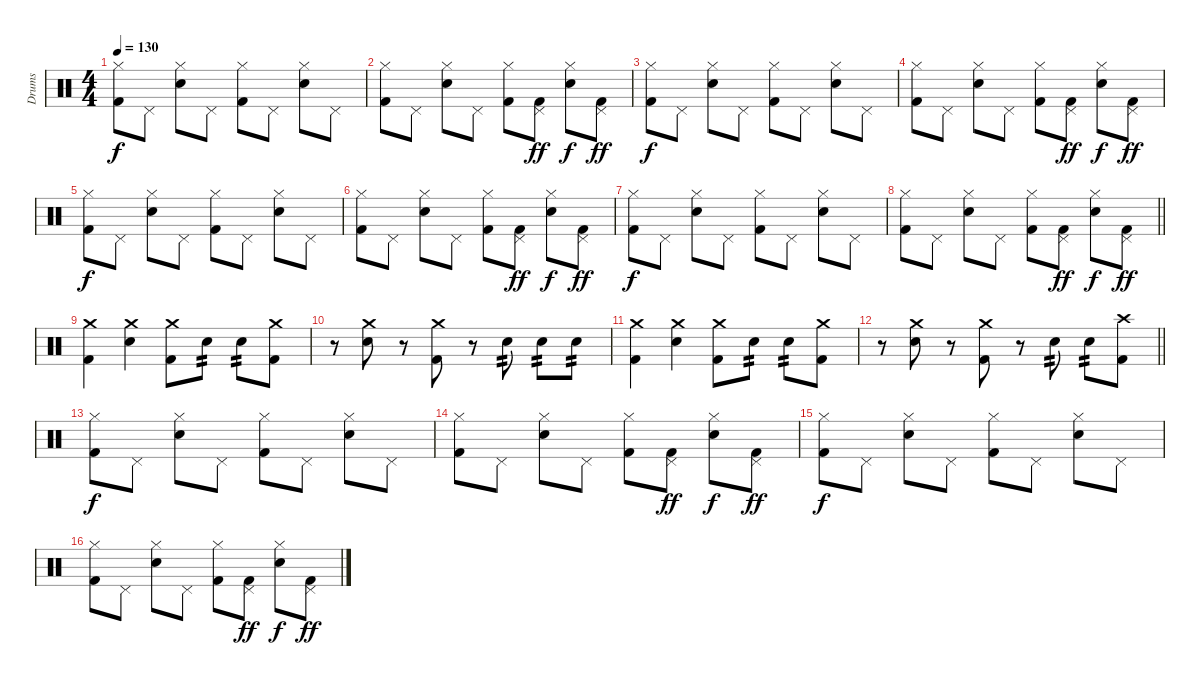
\track ("Drums" "Drums") {instrument percussion}
\staff {score}
\articulation defaults
\ts (4 4)
\tempo 130
\clef neutral
\ks c
("Kick (hit) 2" "Hi-Hat (closed)").8{dy f} "Pedal Hi-Hat (hit)".8 ("Electric Snare (hit)" "Hi-Hat (closed)").8 "Pedal Hi-Hat (hit)".8 ("Kick (hit) 2" "Hi-Hat (closed)").8 "Pedal Hi-Hat (hit)".8 ("Electric Snare (hit)" "Hi-Hat (closed)").8 "Pedal Hi-Hat (hit)".8 |
("Kick (hit) 2" "Hi-Hat (closed)").8 "Pedal Hi-Hat (hit)".8 ("Electric Snare (hit)" "Hi-Hat (closed)").8 "Pedal Hi-Hat (hit)".8 ("Kick (hit) 2" "Hi-Hat (closed)").8 ("Kick (hit) 2" "Pedal Hi-Hat (hit)").8{dy ff} ("Electric Snare (hit)" "Hi-Hat (closed)").8{dy f} ("Kick (hit) 2" "Pedal Hi-Hat (hit)").8{dy ff} |
("Kick (hit) 2" "Hi-Hat (closed)").8{dy f} "Pedal Hi-Hat (hit)".8 ("Electric Snare (hit)" "Hi-Hat (closed)").8 "Pedal Hi-Hat (hit)".8 ("Kick (hit) 2" "Hi-Hat (closed)").8 "Pedal Hi-Hat (hit)".8 ("Electric Snare (hit)" "Hi-Hat (closed)").8 "Pedal Hi-Hat (hit)".8 |
("Kick (hit) 2" "Hi-Hat (closed)").8 "Pedal Hi-Hat (hit)".8 ("Electric Snare (hit)" "Hi-Hat (closed)").8 "Pedal Hi-Hat (hit)".8 ("Kick (hit) 2" "Hi-Hat (closed)").8 ("Kick (hit) 2" "Pedal Hi-Hat (hit)").8{dy ff} ("Electric Snare (hit)" "Hi-Hat (closed)").8{dy f} ("Kick (hit) 2" "Pedal Hi-Hat (hit)").8{dy ff} |
("Kick (hit) 2" "Hi-Hat (closed)").8{dy f} "Pedal Hi-Hat (hit)".8 ("Electric Snare (hit)" "Hi-Hat (closed)").8 "Pedal Hi-Hat (hit)".8 ("Kick (hit) 2" "Hi-Hat (closed)").8 "Pedal Hi-Hat (hit)".8 ("Electric Snare (hit)" "Hi-Hat (closed)").8 "Pedal Hi-Hat (hit)".8 |
("Kick (hit) 2" "Hi-Hat (closed)").8 "Pedal Hi-Hat (hit)".8 ("Electric Snare (hit)" "Hi-Hat (closed)").8 "Pedal Hi-Hat (hit)".8 ("Kick (hit) 2" "Hi-Hat (closed)").8 ("Kick (hit) 2" "Pedal Hi-Hat (hit)").8{dy ff} ("Electric Snare (hit)" "Hi-Hat (closed)").8{dy f} ("Kick (hit) 2" "Pedal Hi-Hat (hit)").8{dy ff} |
("Kick (hit) 2" "Hi-Hat (closed)").8{dy f} "Pedal Hi-Hat (hit)".8 ("Electric Snare (hit)" "Hi-Hat (closed)").8 "Pedal Hi-Hat (hit)".8 ("Kick (hit) 2" "Hi-Hat (closed)").8 "Pedal Hi-Hat (hit)".8 ("Electric Snare (hit)" "Hi-Hat (closed)").8 "Pedal Hi-Hat (hit)".8 |
\barLineRight lightlight
("Kick (hit) 2" "Hi-Hat (closed)").8 "Pedal Hi-Hat (hit)".8 ("Electric Snare (hit)" "Hi-Hat (closed)").8 "Pedal Hi-Hat (hit)".8 ("Kick (hit) 2" "Hi-Hat (closed)").8 ("Kick (hit) 2" "Pedal Hi-Hat (hit)").8{dy ff} ("Electric Snare (hit)" "Hi-Hat (closed)").8{dy f} ("Kick (hit) 2" "Pedal Hi-Hat (hit)").8{dy ff} |
("Kick (hit) 2" "Crash medium (hit)").4 ("Electric Snare (hit)" "Crash medium (hit)").4 ("Kick (hit) 2" "Crash medium (hit)").8 "Electric Snare (hit)".8{tp 2} "Electric Snare (hit)".8{tp 2} ("Kick (hit) 2" "Crash medium (hit)").8 |
r.8 ("Electric Snare (hit)" "Crash medium (hit)").8 r.8 ("Kick (hit) 2" "Crash medium (hit)").8 r.8 "Electric Snare (hit)".8{tp 2} "Electric Snare (hit)".8{tp 2} "Electric Snare (hit)".8{tp 2} |
("Kick (hit) 2" "Crash medium (hit)").4 ("Electric Snare (hit)" "Crash medium (hit)").4 ("Kick (hit) 2" "Crash medium (hit)").8 "Electric Snare (hit)".8{tp 2} "Electric Snare (hit)".8{tp 2} ("Kick (hit) 2" "Crash medium (hit)").8 |
\barLineRight lightlight
r.8 ("Electric Snare (hit)" "Crash medium (hit)").8 r.8 ("Kick (hit) 2" "Crash medium (hit)").8 r.8 "Electric Snare (hit)".8{tp 2} "Electric Snare (hit)".8{tp 2} ("Kick (hit) 2" "Crash high (hit)").8 |
("Kick (hit) 2" "Hi-Hat (closed)").8{dy f} "Pedal Hi-Hat (hit)".8 ("Electric Snare (hit)" "Hi-Hat (closed)").8 "Pedal Hi-Hat (hit)".8 ("Kick (hit) 2" "Hi-Hat (closed)").8 "Pedal Hi-Hat (hit)".8 ("Electric Snare (hit)" "Hi-Hat (closed)").8 "Pedal Hi-Hat (hit)".8 |
("Kick (hit) 2" "Hi-Hat (closed)").8 "Pedal Hi-Hat (hit)".8 ("Electric Snare (hit)" "Hi-Hat (closed)").8 "Pedal Hi-Hat (hit)".8 ("Kick (hit) 2" "Hi-Hat (closed)").8 ("Kick (hit) 2" "Pedal Hi-Hat (hit)").8{dy ff} ("Electric Snare (hit)" "Hi-Hat (closed)").8{dy f} ("Kick (hit) 2" "Pedal Hi-Hat (hit)").8{dy ff} |
("Kick (hit) 2" "Hi-Hat (closed)").8{dy f} "Pedal Hi-Hat (hit)".8 ("Electric Snare (hit)" "Hi-Hat (closed)").8 "Pedal Hi-Hat (hit)".8 ("Kick (hit) 2" "Hi-Hat (closed)").8 "Pedal Hi-Hat (hit)".8 ("Electric Snare (hit)" "Hi-Hat (closed)").8 "Pedal Hi-Hat (hit)".8 |
("Kick (hit) 2" "Hi-Hat (closed)").8 "Pedal Hi-Hat (hit)".8 ("Electric Snare (hit)" "Hi-Hat (closed)").8 "Pedal Hi-Hat (hit)".8 ("Kick (hit) 2" "Hi-Hat (closed)").8 ("Kick (hit) 2" "Pedal Hi-Hat (hit)").8{dy ff} ("Electric Snare (hit)" "Hi-Hat (closed)").8{dy f} ("Kick (hit) 2" "Pedal Hi-Hat (hit)").8{dy ff}
